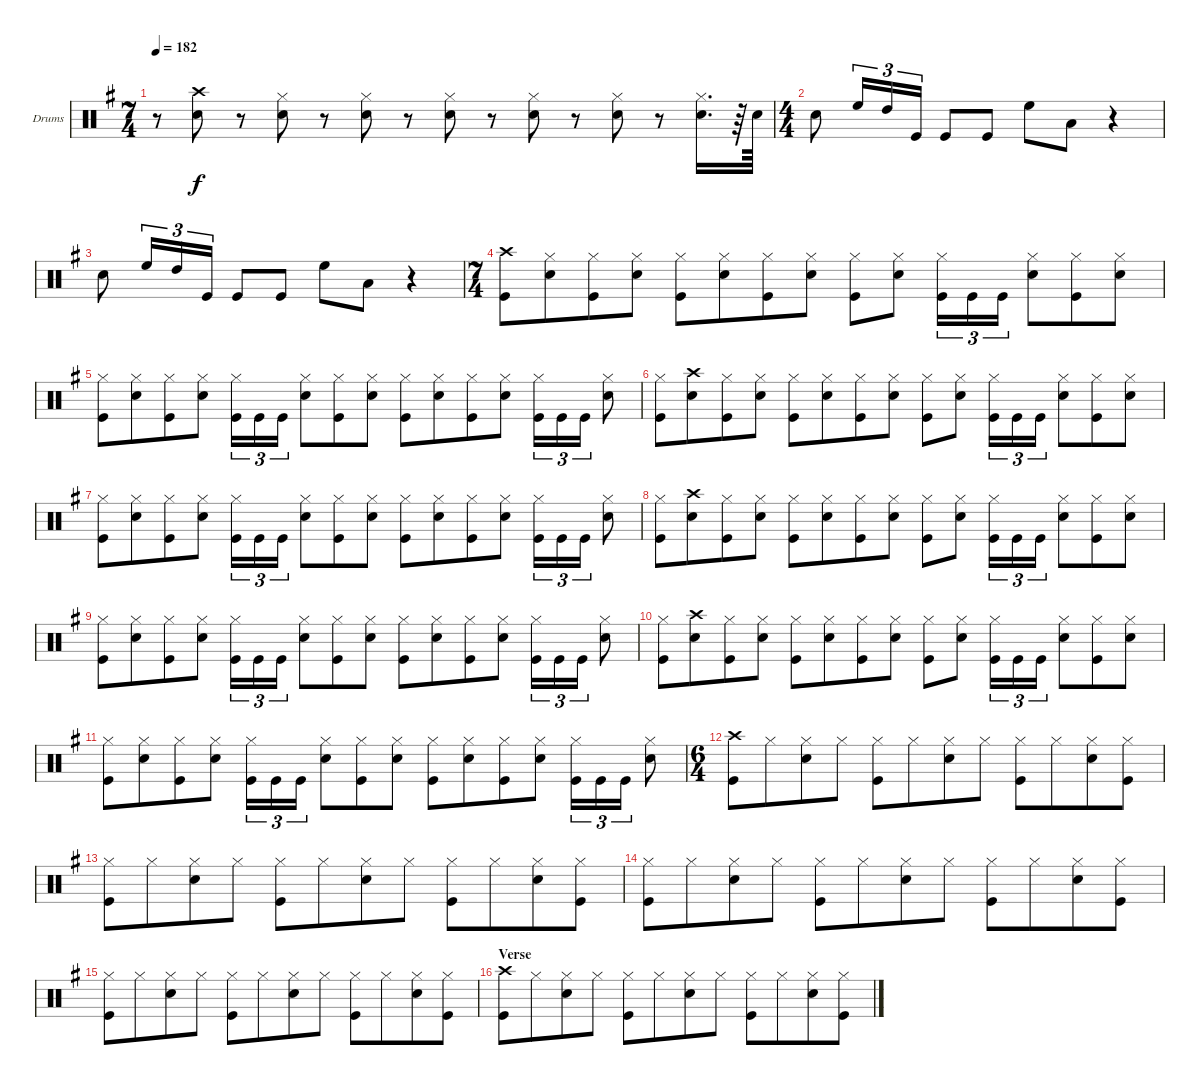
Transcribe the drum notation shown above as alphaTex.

\bracketExtendMode groupsimilarinstruments
\firstSystemTrackNameOrientation horizontal
\otherSystemsTrackNameOrientation horizontal
\track ("Drumkit" "Drums") {instrument percussion}
\staff {score}
\articulation defaults
\ts (7 4)
\tempo 182
\clef neutral
\scale
1.04288
\ks g
r.8{dy f} ("Crash high (hit)" "Snare (hit) 2").8 r.8 ("Snare (hit) 2" "Hi-Hat (closed)").8 r.8 ("Snare (hit) 2" "Hi-Hat (closed)").8 r.8 ("Snare (hit) 2" "Hi-Hat (closed)").8 r.8 ("Snare (hit) 2" "Hi-Hat (closed)").8 r.8 ("Snare (hit) 2" "Hi-Hat (closed)").8 r.8 ("Snare (hit) 2" "Hi-Hat (closed)").16{d} r.64 "Snare (hit) 2".64 |
\ts (4 4)
\beaming (8 4 4 6)
\scale
0.957125 "Snare (hit) 2".8 "High Floor Tom (hit)".16{tu (3 2)} "High Tom (hit)".16{tu (3 2)} "Kick (hit)".16{tu (3 2)} "Kick (hit)".8 "Kick (hit)".8 "High Floor Tom (hit)".8 "Low Tom (hit)".8 r.4 |
\scale
1.04288 "Snare (hit) 2".8 "High Floor Tom (hit)".16{tu (3 2)} "High Tom (hit)".16{tu (3 2)} "Kick (hit)".16{tu (3 2)} "Kick (hit)".8 "Kick (hit)".8 "High Floor Tom (hit)".8 "Low Tom (hit)".8 r.4 |
\ts (7 4)
\beaming (8 4 4 6)
\scale
0.957125 ("Crash high (hit)" "Kick (hit)").8 ("Snare (hit) 2" "Hi-Hat (closed)").8 ("Hi-Hat (closed)" "Kick (hit)").8 ("Snare (hit) 2" "Hi-Hat (closed)").8 ("Hi-Hat (closed)" "Kick (hit)").8 ("Snare (hit) 2" "Hi-Hat (closed)").8 ("Hi-Hat (closed)" "Kick (hit)").8 ("Snare (hit) 2" "Hi-Hat (closed)").8 ("Hi-Hat (closed)" "Kick (hit)").8 ("Snare (hit) 2" "Hi-Hat (closed)").8 ("Hi-Hat (closed)" "Kick (hit)").16{tu (3 2)} "Kick (hit)".16{tu (3 2)} "Kick (hit)".16{tu (3 2)} ("Snare (hit) 2" "Hi-Hat (closed)").8 ("Hi-Hat (closed)" "Kick (hit)").8 ("Snare (hit) 2" "Hi-Hat (closed)").8 |
\scale
1.04288 ("Hi-Hat (closed)" "Kick (hit)").8 ("Snare (hit) 2" "Hi-Hat (closed)").8 ("Hi-Hat (closed)" "Kick (hit)").8 ("Snare (hit) 2" "Hi-Hat (closed)").8 ("Hi-Hat (closed)" "Kick (hit)").16{tu (3 2)} "Kick (hit)".16{tu (3 2)} "Kick (hit)".16{tu (3 2)} ("Snare (hit) 2" "Hi-Hat (closed)").8 ("Hi-Hat (closed)" "Kick (hit)").8 ("Snare (hit) 2" "Hi-Hat (closed)").8 ("Hi-Hat (closed)" "Kick (hit)").8 ("Snare (hit) 2" "Hi-Hat (closed)").8 ("Kick (hit)" "Hi-Hat (closed)").8 ("Snare (hit) 2" "Hi-Hat (closed)").8 ("Kick (hit)" "Hi-Hat (closed)").16{tu (3 2)} "Kick (hit)".16{tu (3 2)} "Kick (hit)".16{tu (3 2)} ("Snare (hit) 2" "Hi-Hat (closed)").8 |
\scale
0.957125 ("Hi-Hat (closed)" "Kick (hit)").8 ("Crash high (hit)" "Snare (hit) 2").8 ("Hi-Hat (closed)" "Kick (hit)").8 ("Snare (hit) 2" "Hi-Hat (closed)").8 ("Hi-Hat (closed)" "Kick (hit)").8 ("Snare (hit) 2" "Hi-Hat (closed)").8 ("Hi-Hat (closed)" "Kick (hit)").8 ("Snare (hit) 2" "Hi-Hat (closed)").8 ("Hi-Hat (closed)" "Kick (hit)").8 ("Snare (hit) 2" "Hi-Hat (closed)").8 ("Hi-Hat (closed)" "Kick (hit)").16{tu (3 2)} "Kick (hit)".16{tu (3 2)} "Kick (hit)".16{tu (3 2)} ("Snare (hit) 2" "Hi-Hat (closed)").8 ("Hi-Hat (closed)" "Kick (hit)").8 ("Snare (hit) 2" "Hi-Hat (closed)").8 |
\scale
1.04288 ("Hi-Hat (closed)" "Kick (hit)").8 ("Snare (hit) 2" "Hi-Hat (closed)").8 ("Hi-Hat (closed)" "Kick (hit)").8 ("Snare (hit) 2" "Hi-Hat (closed)").8 ("Hi-Hat (closed)" "Kick (hit)").16{tu (3 2)} "Kick (hit)".16{tu (3 2)} "Kick (hit)".16{tu (3 2)} ("Snare (hit) 2" "Hi-Hat (closed)").8 ("Hi-Hat (closed)" "Kick (hit)").8 ("Snare (hit) 2" "Hi-Hat (closed)").8 ("Hi-Hat (closed)" "Kick (hit)").8 ("Snare (hit) 2" "Hi-Hat (closed)").8 ("Kick (hit)" "Hi-Hat (closed)").8 ("Snare (hit) 2" "Hi-Hat (closed)").8 ("Kick (hit)" "Hi-Hat (closed)").16{tu (3 2)} "Kick (hit)".16{tu (3 2)} "Kick (hit)".16{tu (3 2)} ("Snare (hit) 2" "Hi-Hat (closed)").8 |
\scale
0.957125 ("Hi-Hat (closed)" "Kick (hit)").8 ("Crash high (hit)" "Snare (hit) 2").8 ("Hi-Hat (closed)" "Kick (hit)").8 ("Snare (hit) 2" "Hi-Hat (closed)").8 ("Hi-Hat (closed)" "Kick (hit)").8 ("Snare (hit) 2" "Hi-Hat (closed)").8 ("Hi-Hat (closed)" "Kick (hit)").8 ("Snare (hit) 2" "Hi-Hat (closed)").8 ("Hi-Hat (closed)" "Kick (hit)").8 ("Snare (hit) 2" "Hi-Hat (closed)").8 ("Hi-Hat (closed)" "Kick (hit)").16{tu (3 2)} "Kick (hit)".16{tu (3 2)} "Kick (hit)".16{tu (3 2)} ("Snare (hit) 2" "Hi-Hat (closed)").8 ("Hi-Hat (closed)" "Kick (hit)").8 ("Snare (hit) 2" "Hi-Hat (closed)").8 |
\scale
1.04288 ("Hi-Hat (closed)" "Kick (hit)").8 ("Snare (hit) 2" "Hi-Hat (closed)").8 ("Hi-Hat (closed)" "Kick (hit)").8 ("Snare (hit) 2" "Hi-Hat (closed)").8 ("Hi-Hat (closed)" "Kick (hit)").16{tu (3 2)} "Kick (hit)".16{tu (3 2)} "Kick (hit)".16{tu (3 2)} ("Snare (hit) 2" "Hi-Hat (closed)").8 ("Hi-Hat (closed)" "Kick (hit)").8 ("Snare (hit) 2" "Hi-Hat (closed)").8 ("Hi-Hat (closed)" "Kick (hit)").8 ("Snare (hit) 2" "Hi-Hat (closed)").8 ("Kick (hit)" "Hi-Hat (closed)").8 ("Snare (hit) 2" "Hi-Hat (closed)").8 ("Kick (hit)" "Hi-Hat (closed)").16{tu (3 2)} "Kick (hit)".16{tu (3 2)} "Kick (hit)".16{tu (3 2)} ("Snare (hit) 2" "Hi-Hat (closed)").8 |
\scale
0.957125 ("Hi-Hat (closed)" "Kick (hit)").8 ("Crash high (hit)" "Snare (hit) 2").8 ("Hi-Hat (closed)" "Kick (hit)").8 ("Snare (hit) 2" "Hi-Hat (closed)").8 ("Hi-Hat (closed)" "Kick (hit)").8 ("Snare (hit) 2" "Hi-Hat (closed)").8 ("Hi-Hat (closed)" "Kick (hit)").8 ("Snare (hit) 2" "Hi-Hat (closed)").8 ("Hi-Hat (closed)" "Kick (hit)").8 ("Snare (hit) 2" "Hi-Hat (closed)").8 ("Hi-Hat (closed)" "Kick (hit)").16{tu (3 2)} "Kick (hit)".16{tu (3 2)} "Kick (hit)".16{tu (3 2)} ("Snare (hit) 2" "Hi-Hat (closed)").8 ("Hi-Hat (closed)" "Kick (hit)").8 ("Snare (hit) 2" "Hi-Hat (closed)").8 |
\scale
1.04288 ("Hi-Hat (closed)" "Kick (hit)").8 ("Snare (hit) 2" "Hi-Hat (closed)").8 ("Hi-Hat (closed)" "Kick (hit)").8 ("Snare (hit) 2" "Hi-Hat (closed)").8 ("Hi-Hat (closed)" "Kick (hit)").16{tu (3 2)} "Kick (hit)".16{tu (3 2)} "Kick (hit)".16{tu (3 2)} ("Snare (hit) 2" "Hi-Hat (closed)").8 ("Hi-Hat (closed)" "Kick (hit)").8 ("Snare (hit) 2" "Hi-Hat (closed)").8 ("Hi-Hat (closed)" "Kick (hit)").8 ("Snare (hit) 2" "Hi-Hat (closed)").8 ("Kick (hit)" "Hi-Hat (closed)").8 ("Snare (hit) 2" "Hi-Hat (closed)").8 ("Kick (hit)" "Hi-Hat (closed)").16{tu (3 2)} "Kick (hit)".16{tu (3 2)} "Kick (hit)".16{tu (3 2)} ("Snare (hit) 2" "Hi-Hat (closed)").8 |
\ts (6 4)
\beaming (8 4 4 6)
\scale
0.957125 ("Kick (hit)" "Crash high (hit)").8 "Hi-Hat (closed)".8 ("Snare (hit) 2" "Hi-Hat (closed)").8 "Hi-Hat (closed)".8 ("Kick (hit)" "Hi-Hat (closed)").8 "Hi-Hat (closed)".8 ("Snare (hit) 2" "Hi-Hat (closed)").8 "Hi-Hat (closed)".8 ("Kick (hit)" "Hi-Hat (closed)").8 "Hi-Hat (closed)".8 ("Snare (hit) 2" "Hi-Hat (closed)").8 ("Kick (hit)" "Hi-Hat (closed)").8 |
\scale
1.04288 ("Hi-Hat (closed)" "Kick (hit)").8 "Hi-Hat (closed)".8 ("Snare (hit) 2" "Hi-Hat (closed)").8 "Hi-Hat (closed)".8 ("Kick (hit)" "Hi-Hat (closed)").8 "Hi-Hat (closed)".8 ("Snare (hit) 2" "Hi-Hat (closed)").8 "Hi-Hat (closed)".8 ("Kick (hit)" "Hi-Hat (closed)").8 "Hi-Hat (closed)".8 ("Snare (hit) 2" "Hi-Hat (closed)").8 ("Kick (hit)" "Hi-Hat (closed)").8 |
\scale
0.957125 ("Hi-Hat (closed)" "Kick (hit)").8 "Hi-Hat (closed)".8 ("Snare (hit) 2" "Hi-Hat (closed)").8 "Hi-Hat (closed)".8 ("Kick (hit)" "Hi-Hat (closed)").8 "Hi-Hat (closed)".8 ("Snare (hit) 2" "Hi-Hat (closed)").8 "Hi-Hat (closed)".8 ("Kick (hit)" "Hi-Hat (closed)").8 "Hi-Hat (closed)".8 ("Snare (hit) 2" "Hi-Hat (closed)").8 ("Kick (hit)" "Hi-Hat (closed)").8 |
\scale
1.04288 ("Hi-Hat (closed)" "Kick (hit)").8 "Hi-Hat (closed)".8 ("Snare (hit) 2" "Hi-Hat (closed)").8 "Hi-Hat (closed)".8 ("Kick (hit)" "Hi-Hat (closed)").8 "Hi-Hat (closed)".8 ("Snare (hit) 2" "Hi-Hat (closed)").8 "Hi-Hat (closed)".8 ("Kick (hit)" "Hi-Hat (closed)").8 "Hi-Hat (closed)".8 ("Snare (hit) 2" "Hi-Hat (closed)").8 ("Kick (hit)" "Hi-Hat (closed)").8 |
\section ("" "Verse")
\scale
0.957125 ("Kick (hit)" "Crash high (hit)").8 "Hi-Hat (closed)".8 ("Snare (hit) 2" "Hi-Hat (closed)").8 "Hi-Hat (closed)".8 ("Kick (hit)" "Hi-Hat (closed)").8 "Hi-Hat (closed)".8 ("Snare (hit) 2" "Hi-Hat (closed)").8 "Hi-Hat (closed)".8 ("Kick (hit)" "Hi-Hat (closed)").8 "Hi-Hat (closed)".8 ("Snare (hit) 2" "Hi-Hat (closed)").8 ("Kick (hit)" "Hi-Hat (closed)").8
